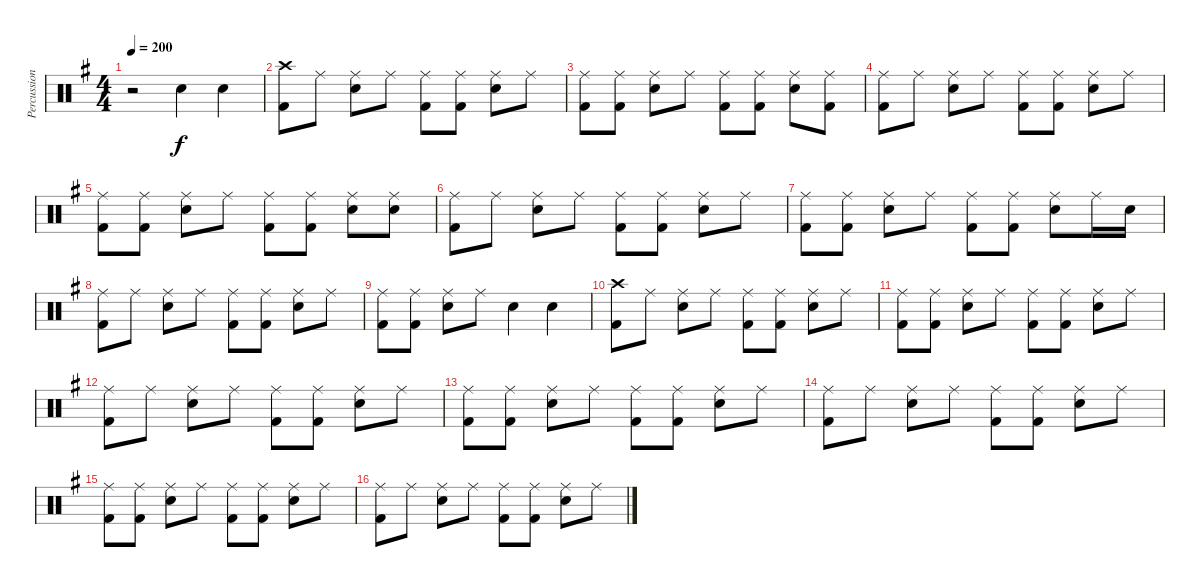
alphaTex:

\track ("Percussion" "Percussion") {instrument percussion}
\staff {score}
\articulation defaults
\ts (4 4)
\tempo 200
\clef neutral
\ks eminor
r.2{dy f} "Snare (hit) 2".4 "Snare (hit) 2".4 |
("Crash high (hit)" "Kick (hit) 2").8 "Ride (middle)".8 ("Ride (middle)" "Snare (hit) 2").8 "Ride (middle)".8 ("Ride (middle)" "Kick (hit) 2").8 ("Ride (middle)" "Kick (hit) 2").8 ("Ride (middle)" "Snare (hit) 2").8 "Ride (middle)".8 |
("Ride (middle)" "Kick (hit) 2").8 ("Ride (middle)" "Kick (hit) 2").8 ("Ride (middle)" "Snare (hit) 2").8 "Ride (middle)".8 ("Ride (middle)" "Kick (hit) 2").8 ("Ride (middle)" "Kick (hit) 2").8 ("Ride (middle)" "Snare (hit) 2").8 ("Ride (middle)" "Kick (hit) 2").8 |
("Ride (middle)" "Kick (hit) 2").8 "Ride (middle)".8 ("Ride (middle)" "Snare (hit) 2").8 "Ride (middle)".8 ("Ride (middle)" "Kick (hit) 2").8 ("Ride (middle)" "Kick (hit) 2").8 ("Ride (middle)" "Snare (hit) 2").8 "Ride (middle)".8 |
("Ride (middle)" "Kick (hit) 2").8 ("Ride (middle)" "Kick (hit) 2").8 ("Ride (middle)" "Snare (hit) 2").8 "Ride (middle)".8 ("Ride (middle)" "Kick (hit) 2").8 ("Ride (middle)" "Kick (hit) 2").8 ("Ride (middle)" "Snare (hit) 2").8 ("Ride (middle)" "Snare (hit) 2").8 |
("Ride (middle)" "Kick (hit) 2").8 "Ride (middle)".8 ("Ride (middle)" "Snare (hit) 2").8 "Ride (middle)".8 ("Ride (middle)" "Kick (hit) 2").8 ("Ride (middle)" "Kick (hit) 2").8 ("Ride (middle)" "Snare (hit) 2").8 "Ride (middle)".8 |
("Ride (middle)" "Kick (hit) 2").8 ("Ride (middle)" "Kick (hit) 2").8 ("Ride (middle)" "Snare (hit) 2").8 "Ride (middle)".8 ("Ride (middle)" "Kick (hit) 2").8 ("Ride (middle)" "Kick (hit) 2").8 ("Ride (middle)" "Snare (hit) 2").8 "Ride (middle)".16 "Snare (hit) 2".16 |
("Ride (middle)" "Kick (hit) 2").8 "Ride (middle)".8 ("Ride (middle)" "Snare (hit) 2").8 "Ride (middle)".8 ("Ride (middle)" "Kick (hit) 2").8 ("Ride (middle)" "Kick (hit) 2").8 ("Ride (middle)" "Snare (hit) 2").8 "Ride (middle)".8 |
("Ride (middle)" "Kick (hit) 2").8 ("Ride (middle)" "Kick (hit) 2").8 ("Ride (middle)" "Snare (hit) 2").8 "Ride (middle)".8 "Snare (hit) 2".4 "Snare (hit) 2".4 |
("Crash high (hit)" "Kick (hit) 2").8 "Ride (middle)".8 ("Ride (middle)" "Snare (hit) 2").8 "Ride (middle)".8 ("Ride (middle)" "Kick (hit) 2").8 ("Ride (middle)" "Kick (hit) 2").8 ("Ride (middle)" "Snare (hit) 2").8 "Ride (middle)".8 |
("Ride (middle)" "Kick (hit) 2").8 ("Ride (middle)" "Kick (hit) 2").8 ("Ride (middle)" "Snare (hit) 2").8 "Ride (middle)".8 ("Ride (middle)" "Kick (hit) 2").8 ("Ride (middle)" "Kick (hit) 2").8 ("Ride (middle)" "Snare (hit) 2").8 "Ride (middle)".8 |
("Ride (middle)" "Kick (hit) 2").8 "Ride (middle)".8 ("Ride (middle)" "Snare (hit) 2").8 "Ride (middle)".8 ("Ride (middle)" "Kick (hit) 2").8 ("Ride (middle)" "Kick (hit) 2").8 ("Ride (middle)" "Snare (hit) 2").8 "Ride (middle)".8 |
("Ride (middle)" "Kick (hit) 2").8 ("Ride (middle)" "Kick (hit) 2").8 ("Ride (middle)" "Snare (hit) 2").8 "Ride (middle)".8 ("Ride (middle)" "Kick (hit) 2").8 ("Ride (middle)" "Kick (hit) 2").8 ("Ride (middle)" "Snare (hit) 2").8 "Ride (middle)".8 |
("Ride (middle)" "Kick (hit) 2").8 "Ride (middle)".8 ("Ride (middle)" "Snare (hit) 2").8 "Ride (middle)".8 ("Ride (middle)" "Kick (hit) 2").8 ("Ride (middle)" "Kick (hit) 2").8 ("Ride (middle)" "Snare (hit) 2").8 "Ride (middle)".8 |
("Ride (middle)" "Kick (hit) 2").8 ("Ride (middle)" "Kick (hit) 2").8 ("Ride (middle)" "Snare (hit) 2").8 "Ride (middle)".8 ("Ride (middle)" "Kick (hit) 2").8 ("Ride (middle)" "Kick (hit) 2").8 ("Ride (middle)" "Snare (hit) 2").8 "Ride (middle)".8 |
("Ride (middle)" "Kick (hit) 2").8 "Ride (middle)".8 ("Ride (middle)" "Snare (hit) 2").8 "Ride (middle)".8 ("Ride (middle)" "Kick (hit) 2").8 ("Ride (middle)" "Kick (hit) 2").8 ("Ride (middle)" "Snare (hit) 2").8 "Ride (middle)".8
